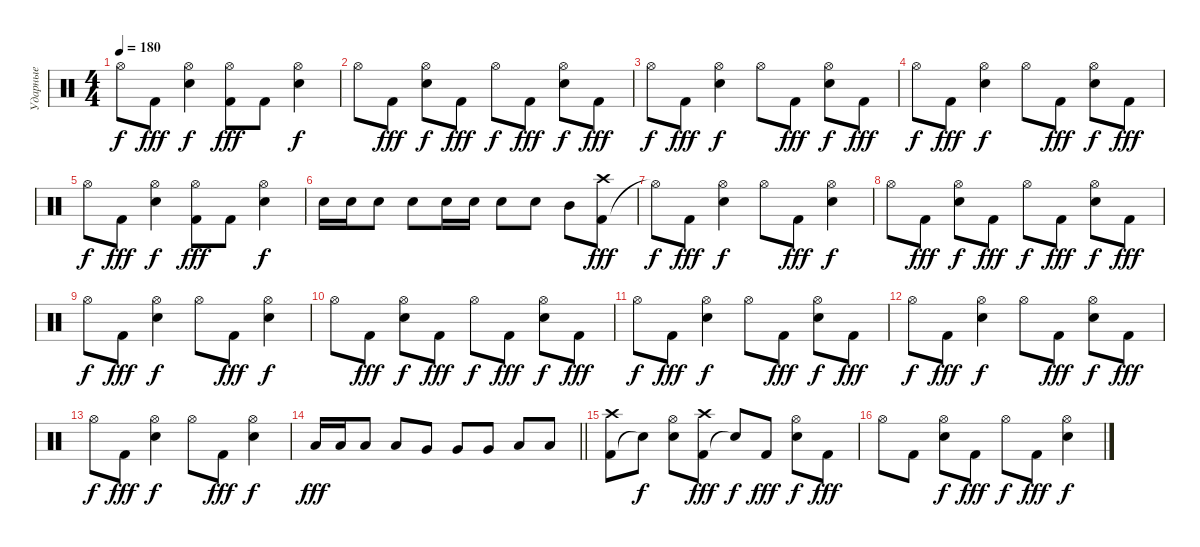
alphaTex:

\track ("Ударные" "Ударные") {instrument percussion}
\staff
\articulation defaults
\ts (4 4)
\tempo 180
\clef neutral
\ks c "Hi-Hat (open)".8{dy f} "Kick (hit) 2".8{dy fff}
("Snare (hit) 2" "Hi-Hat (open)").4{dy f} ("Kick (hit) 2" "Hi-Hat (open)").8{dy fff} "Kick (hit) 2".8 ("Snare (hit) 2" "Hi-Hat (open)").4{dy f} |
"Hi-Hat (open)".8 "Kick (hit) 2".8{dy fff} ("Snare (hit) 2" "Hi-Hat (open)").8{dy f} "Kick (hit) 2".8{dy fff} "Hi-Hat (open)".8{dy f} "Kick (hit) 2".8{dy fff} ("Snare (hit) 2" "Hi-Hat (open)").8{dy f} "Kick (hit) 2".8{dy fff} |
"Hi-Hat (open)".8{dy f} "Kick (hit) 2".8{dy fff} ("Snare (hit) 2" "Hi-Hat (open)").4{dy f} "Hi-Hat (open)".8 "Kick (hit) 2".8{dy fff} ("Snare (hit) 2" "Hi-Hat (open)").8{dy f} "Kick (hit) 2".8{dy fff} |
"Hi-Hat (open)".8{dy f} "Kick (hit) 2".8{dy fff} ("Snare (hit) 2" "Hi-Hat (open)").4{dy f} "Hi-Hat (open)".8 "Kick (hit) 2".8{dy fff} ("Snare (hit) 2" "Hi-Hat (open)").8{dy f} "Kick (hit) 2".8{dy fff} |
"Hi-Hat (open)".8{dy f} "Kick (hit) 2".8{dy fff} ("Snare (hit) 2" "Hi-Hat (open)").4{dy f} ("Kick (hit) 2" "Hi-Hat (open)").8{dy fff} "Kick (hit) 2".8 ("Snare (hit) 2" "Hi-Hat (open)").4{dy f} |
"Snare (hit) 2".16 "Snare (hit) 2".16 "Snare (hit) 2".8 "Snare (hit) 2".8 "Snare (hit) 2".16 "Snare (hit) 2".16 "Snare (hit) 2".8 "Snare (hit) 2".8 "Mid Tom (hit)".8 ("Kick (hit) 2" "Crash high (hit)").8{dy fff} |
"Hi-Hat (open)"{t}.8{dy f} "Kick (hit) 2".8{dy fff} ("Snare (hit) 2" "Hi-Hat (open)").4{dy f} "Hi-Hat (open)".8 "Kick (hit) 2".8{dy fff} ("Snare (hit) 2" "Hi-Hat (open)").4{dy f} |
"Hi-Hat (open)".8 "Kick (hit) 2".8{dy fff} ("Snare (hit) 2" "Hi-Hat (open)").8{dy f} "Kick (hit) 2".8{dy fff} "Hi-Hat (open)".8{dy f} "Kick (hit) 2".8{dy fff} ("Snare (hit) 2" "Hi-Hat (open)").8{dy f} "Kick (hit) 2".8{dy fff} |
"Hi-Hat (open)".8{dy f} "Kick (hit) 2".8{dy fff} ("Snare (hit) 2" "Hi-Hat (open)").4{dy f} "Hi-Hat (open)".8 "Kick (hit) 2".8{dy fff} ("Snare (hit) 2" "Hi-Hat (open)").4{dy f} |
"Hi-Hat (open)".8 "Kick (hit) 2".8{dy fff} ("Snare (hit) 2" "Hi-Hat (open)").8{dy f} "Kick (hit) 2".8{dy fff} "Hi-Hat (open)".8{dy f} "Kick (hit) 2".8{dy fff} ("Snare (hit) 2" "Hi-Hat (open)").8{dy f} "Kick (hit) 2".8{dy fff} |
"Hi-Hat (open)".8{dy f} "Kick (hit) 2".8{dy fff} ("Snare (hit) 2" "Hi-Hat (open)").4{dy f} "Hi-Hat (open)".8 "Kick (hit) 2".8{dy fff} ("Snare (hit) 2" "Hi-Hat (open)").8{dy f} "Kick (hit) 2".8{dy fff} |
"Hi-Hat (open)".8{dy f} "Kick (hit) 2".8{dy fff} ("Snare (hit) 2" "Hi-Hat (open)").4{dy f} "Hi-Hat (open)".8 "Kick (hit) 2".8{dy fff} ("Snare (hit) 2" "Hi-Hat (open)").8{dy f} "Kick (hit) 2".8{dy fff} |
"Hi-Hat (open)".8{dy f} "Kick (hit) 2".8{dy fff} ("Snare (hit) 2" "Hi-Hat (open)").4{dy f} "Hi-Hat (open)".8 "Kick (hit) 2".8{dy fff} ("Snare (hit) 2" "Hi-Hat (open)").4{dy f} |
\barLineRight lightlight "Low Tom (hit)".16{dy fff} "Low Tom (hit)".16 "Low Tom (hit)".8 "Low Tom (hit)".8 "Very Low Tom (hit)".8 "Very Low Tom (hit)".8 "Very Low Tom (hit)".8 "Low Floor Tom (hit)".8 "Low Floor Tom (hit)".8
|
("Kick (hit) 2" "Crash high (hit)").8 "Snare (hit)"{t}.8{dy f} ("Snare (hit) 2" "Hi-Hat (open)").8 ("Kick (hit) 2" "Crash high (hit)").8{dy fff} "Snare (hit)"{t}.8{dy f} "Kick (hit) 2".8{dy fff} ("Snare (hit) 2" "Hi-Hat (open)").8{dy f} "Kick (hit) 2".8{dy fff} |
"Hi-Hat (open)".8 "Kick (hit) 2".8 ("Snare (hit) 2" "Hi-Hat (open)").8{dy f} "Kick (hit) 2".8{dy fff} "Hi-Hat (open)".8{dy f} "Kick (hit) 2".8{dy fff} ("Snare (hit) 2" "Hi-Hat (open)").4{dy f}
